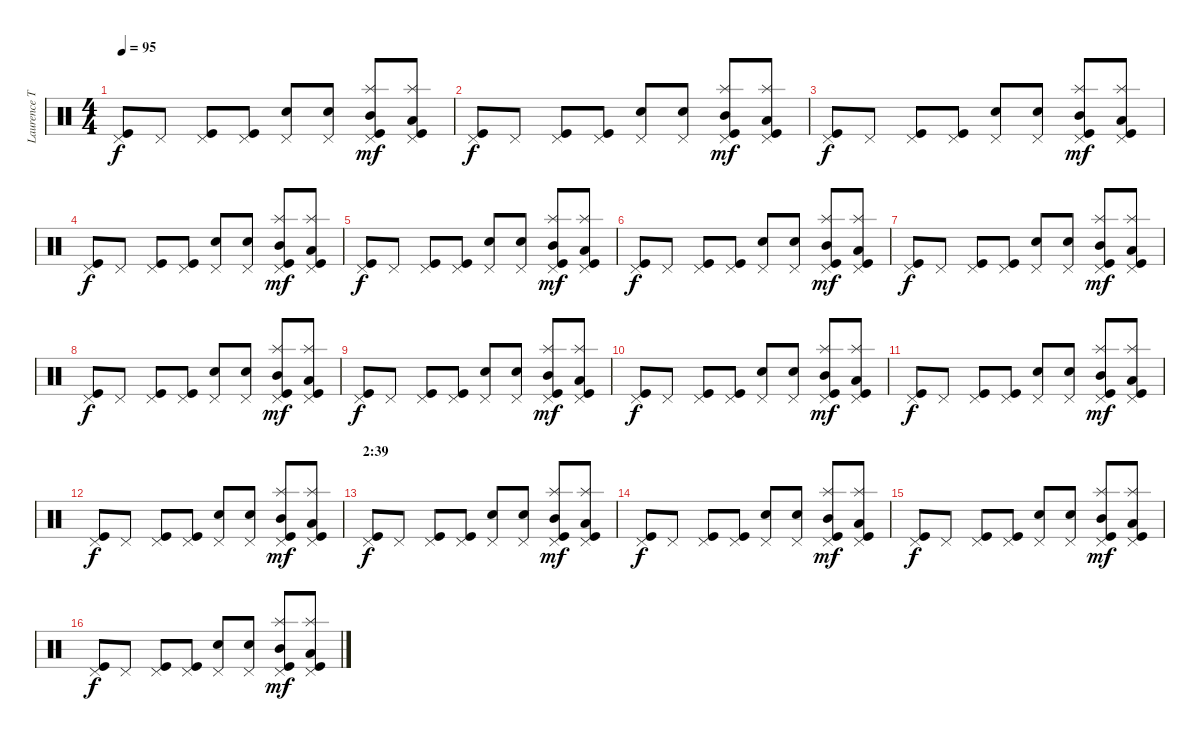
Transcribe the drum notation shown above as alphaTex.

\track ("Laurence Tolhurst (drums)" "Laurence T") {instrument percussion}
\staff {score}
\articulation defaults
\ts (4 4)
\tempo 95
\clef neutral
\ks c
("Pedal Hi-Hat (hit)" "Kick (hit)").8{dy f} "Pedal Hi-Hat (hit)".8 ("Pedal Hi-Hat (hit)" "Kick (hit)").8 ("Pedal Hi-Hat (hit)" "Kick (hit)").8 ("Pedal Hi-Hat (hit)" "Snare (hit) 2").8 ("Pedal Hi-Hat (hit)" "Snare (hit) 2").8 ("Splash (hit)" "Mid Tom (hit)" "Pedal Hi-Hat (hit)" "Kick (hit)").8{dy mf} ("Splash (hit)" "Low Tom (hit)" "Pedal Hi-Hat (hit)" "Kick (hit)").8 |
("Pedal Hi-Hat (hit)" "Kick (hit)").8{dy f} "Pedal Hi-Hat (hit)".8 ("Pedal Hi-Hat (hit)" "Kick (hit)").8 ("Pedal Hi-Hat (hit)" "Kick (hit)").8 ("Pedal Hi-Hat (hit)" "Snare (hit) 2").8 ("Pedal Hi-Hat (hit)" "Snare (hit) 2").8 ("Splash (hit)" "Mid Tom (hit)" "Pedal Hi-Hat (hit)" "Kick (hit)").8{dy mf} ("Splash (hit)" "Low Tom (hit)" "Pedal Hi-Hat (hit)" "Kick (hit)").8 |
("Pedal Hi-Hat (hit)" "Kick (hit)").8{dy f} "Pedal Hi-Hat (hit)".8 ("Pedal Hi-Hat (hit)" "Kick (hit)").8 ("Pedal Hi-Hat (hit)" "Kick (hit)").8 ("Pedal Hi-Hat (hit)" "Snare (hit) 2").8 ("Pedal Hi-Hat (hit)" "Snare (hit) 2").8 ("Splash (hit)" "Mid Tom (hit)" "Pedal Hi-Hat (hit)" "Kick (hit)").8{dy mf} ("Splash (hit)" "Low Tom (hit)" "Pedal Hi-Hat (hit)" "Kick (hit)").8 |
("Pedal Hi-Hat (hit)" "Kick (hit)").8{dy f} "Pedal Hi-Hat (hit)".8 ("Pedal Hi-Hat (hit)" "Kick (hit)").8 ("Pedal Hi-Hat (hit)" "Kick (hit)").8 ("Pedal Hi-Hat (hit)" "Snare (hit) 2").8 ("Pedal Hi-Hat (hit)" "Snare (hit) 2").8 ("Splash (hit)" "Mid Tom (hit)" "Pedal Hi-Hat (hit)" "Kick (hit)").8{dy mf} ("Splash (hit)" "Low Tom (hit)" "Pedal Hi-Hat (hit)" "Kick (hit)").8 |
("Pedal Hi-Hat (hit)" "Kick (hit)").8{dy f} "Pedal Hi-Hat (hit)".8 ("Pedal Hi-Hat (hit)" "Kick (hit)").8 ("Pedal Hi-Hat (hit)" "Kick (hit)").8 ("Pedal Hi-Hat (hit)" "Snare (hit) 2").8 ("Pedal Hi-Hat (hit)" "Snare (hit) 2").8 ("Splash (hit)" "Mid Tom (hit)" "Pedal Hi-Hat (hit)" "Kick (hit)").8{dy mf} ("Splash (hit)" "Low Tom (hit)" "Pedal Hi-Hat (hit)" "Kick (hit)").8 |
("Pedal Hi-Hat (hit)" "Kick (hit)").8{dy f} "Pedal Hi-Hat (hit)".8 ("Pedal Hi-Hat (hit)" "Kick (hit)").8 ("Pedal Hi-Hat (hit)" "Kick (hit)").8 ("Pedal Hi-Hat (hit)" "Snare (hit) 2").8 ("Pedal Hi-Hat (hit)" "Snare (hit) 2").8 ("Splash (hit)" "Mid Tom (hit)" "Pedal Hi-Hat (hit)" "Kick (hit)").8{dy mf} ("Splash (hit)" "Low Tom (hit)" "Pedal Hi-Hat (hit)" "Kick (hit)").8 |
("Pedal Hi-Hat (hit)" "Kick (hit)").8{dy f} "Pedal Hi-Hat (hit)".8 ("Pedal Hi-Hat (hit)" "Kick (hit)").8 ("Pedal Hi-Hat (hit)" "Kick (hit)").8 ("Pedal Hi-Hat (hit)" "Snare (hit) 2").8 ("Pedal Hi-Hat (hit)" "Snare (hit) 2").8 ("Splash (hit)" "Mid Tom (hit)" "Pedal Hi-Hat (hit)" "Kick (hit)").8{dy mf} ("Splash (hit)" "Low Tom (hit)" "Pedal Hi-Hat (hit)" "Kick (hit)").8 |
("Pedal Hi-Hat (hit)" "Kick (hit)").8{dy f} "Pedal Hi-Hat (hit)".8 ("Pedal Hi-Hat (hit)" "Kick (hit)").8 ("Pedal Hi-Hat (hit)" "Kick (hit)").8 ("Pedal Hi-Hat (hit)" "Snare (hit) 2").8 ("Pedal Hi-Hat (hit)" "Snare (hit) 2").8 ("Splash (hit)" "Mid Tom (hit)" "Pedal Hi-Hat (hit)" "Kick (hit)").8{dy mf} ("Splash (hit)" "Low Tom (hit)" "Pedal Hi-Hat (hit)" "Kick (hit)").8 |
("Pedal Hi-Hat (hit)" "Kick (hit)").8{dy f} "Pedal Hi-Hat (hit)".8 ("Pedal Hi-Hat (hit)" "Kick (hit)").8 ("Pedal Hi-Hat (hit)" "Kick (hit)").8 ("Pedal Hi-Hat (hit)" "Snare (hit) 2").8 ("Pedal Hi-Hat (hit)" "Snare (hit) 2").8 ("Splash (hit)" "Mid Tom (hit)" "Pedal Hi-Hat (hit)" "Kick (hit)").8{dy mf} ("Splash (hit)" "Low Tom (hit)" "Pedal Hi-Hat (hit)" "Kick (hit)").8 |
("Pedal Hi-Hat (hit)" "Kick (hit)").8{dy f} "Pedal Hi-Hat (hit)".8 ("Pedal Hi-Hat (hit)" "Kick (hit)").8 ("Pedal Hi-Hat (hit)" "Kick (hit)").8 ("Pedal Hi-Hat (hit)" "Snare (hit) 2").8 ("Pedal Hi-Hat (hit)" "Snare (hit) 2").8 ("Splash (hit)" "Mid Tom (hit)" "Pedal Hi-Hat (hit)" "Kick (hit)").8{dy mf} ("Splash (hit)" "Low Tom (hit)" "Pedal Hi-Hat (hit)" "Kick (hit)").8 |
("Pedal Hi-Hat (hit)" "Kick (hit)").8{dy f} "Pedal Hi-Hat (hit)".8 ("Pedal Hi-Hat (hit)" "Kick (hit)").8 ("Pedal Hi-Hat (hit)" "Kick (hit)").8 ("Pedal Hi-Hat (hit)" "Snare (hit) 2").8 ("Pedal Hi-Hat (hit)" "Snare (hit) 2").8 ("Splash (hit)" "Mid Tom (hit)" "Pedal Hi-Hat (hit)" "Kick (hit)").8{dy mf} ("Splash (hit)" "Low Tom (hit)" "Pedal Hi-Hat (hit)" "Kick (hit)").8 |
("Pedal Hi-Hat (hit)" "Kick (hit)").8{dy f} "Pedal Hi-Hat (hit)".8 ("Pedal Hi-Hat (hit)" "Kick (hit)").8 ("Pedal Hi-Hat (hit)" "Kick (hit)").8 ("Pedal Hi-Hat (hit)" "Snare (hit) 2").8 ("Pedal Hi-Hat (hit)" "Snare (hit) 2").8 ("Splash (hit)" "Mid Tom (hit)" "Pedal Hi-Hat (hit)" "Kick (hit)").8{dy mf} ("Splash (hit)" "Low Tom (hit)" "Pedal Hi-Hat (hit)" "Kick (hit)").8 |
\section ("" "2:39")
("Pedal Hi-Hat (hit)" "Kick (hit)").8{dy f} "Pedal Hi-Hat (hit)".8 ("Pedal Hi-Hat (hit)" "Kick (hit)").8 ("Pedal Hi-Hat (hit)" "Kick (hit)").8 ("Pedal Hi-Hat (hit)" "Snare (hit) 2").8 ("Pedal Hi-Hat (hit)" "Snare (hit) 2").8 ("Splash (hit)" "Mid Tom (hit)" "Pedal Hi-Hat (hit)" "Kick (hit)").8{dy mf} ("Splash (hit)" "Low Tom (hit)" "Pedal Hi-Hat (hit)" "Kick (hit)").8 |
("Pedal Hi-Hat (hit)" "Kick (hit)").8{dy f} "Pedal Hi-Hat (hit)".8 ("Pedal Hi-Hat (hit)" "Kick (hit)").8 ("Pedal Hi-Hat (hit)" "Kick (hit)").8 ("Pedal Hi-Hat (hit)" "Snare (hit) 2").8 ("Pedal Hi-Hat (hit)" "Snare (hit) 2").8 ("Splash (hit)" "Mid Tom (hit)" "Pedal Hi-Hat (hit)" "Kick (hit)").8{dy mf} ("Splash (hit)" "Low Tom (hit)" "Pedal Hi-Hat (hit)" "Kick (hit)").8 |
("Pedal Hi-Hat (hit)" "Kick (hit)").8{dy f} "Pedal Hi-Hat (hit)".8 ("Pedal Hi-Hat (hit)" "Kick (hit)").8 ("Pedal Hi-Hat (hit)" "Kick (hit)").8 ("Pedal Hi-Hat (hit)" "Snare (hit) 2").8 ("Pedal Hi-Hat (hit)" "Snare (hit) 2").8 ("Splash (hit)" "Mid Tom (hit)" "Pedal Hi-Hat (hit)" "Kick (hit)").8{dy mf} ("Splash (hit)" "Low Tom (hit)" "Pedal Hi-Hat (hit)" "Kick (hit)").8 |
("Pedal Hi-Hat (hit)" "Kick (hit)").8{dy f} "Pedal Hi-Hat (hit)".8 ("Pedal Hi-Hat (hit)" "Kick (hit)").8 ("Pedal Hi-Hat (hit)" "Kick (hit)").8 ("Pedal Hi-Hat (hit)" "Snare (hit) 2").8 ("Pedal Hi-Hat (hit)" "Snare (hit) 2").8 ("Splash (hit)" "Mid Tom (hit)" "Pedal Hi-Hat (hit)" "Kick (hit)").8{dy mf} ("Splash (hit)" "Low Tom (hit)" "Pedal Hi-Hat (hit)" "Kick (hit)").8
